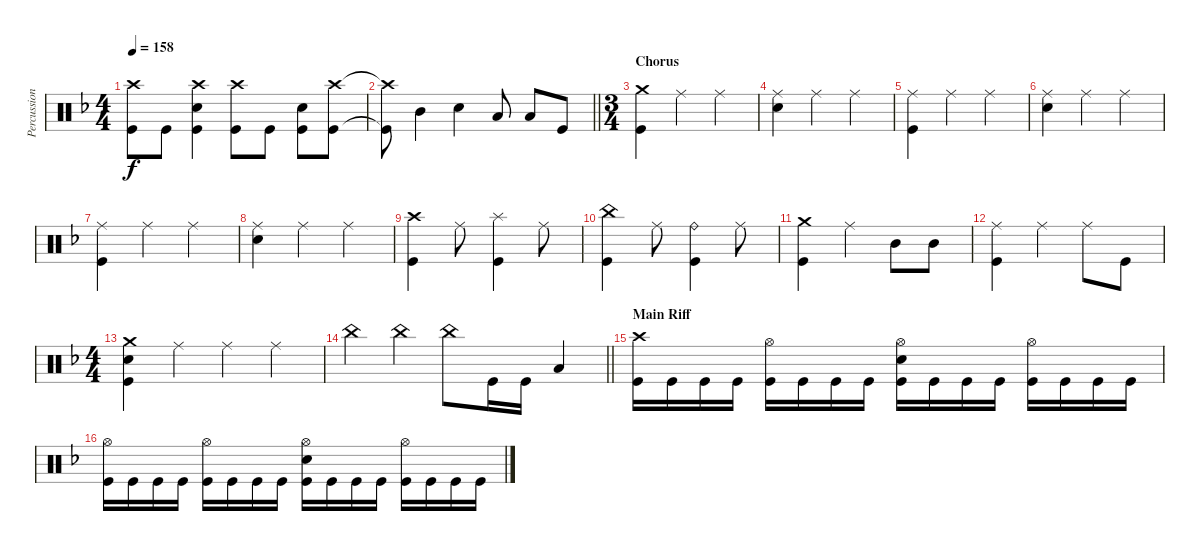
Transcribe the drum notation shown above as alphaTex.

\track ("Percussion" "Percussion") {instrument percussion}
\staff {score}
\articulation defaults
\ts (4 4)
\tempo 158
\clef neutral
\ks f
("Crash high (hit)" "Kick (hit)").8{dy f} "Kick (hit)".8 ("Crash high (hit)" "Electric Snare (hit)" "Kick (hit)").4 ("Crash high (hit)" "Kick (hit)").8 "Kick (hit)".8 ("Electric Snare (hit)" "Kick (hit)").8 ("Crash high (hit)" "Kick (hit)").8 |
\barLineRight lightlight
("Crash high (hit)"{t} "Kick (hit)"{t}).8 "Mid Tom (hit)".4 "Electric Snare (hit)".4 "Low Tom (hit)".8 "Low Tom (hit)".8 "Kick (hit)".8 |
\ts (3 4)
\section ("" "Chorus")
("Crash medium (hit)" "Kick (hit)").4 "Ride (middle)".4 "Ride (middle)".4 |
("Ride (middle)" "Electric Snare (hit)").4 "Ride (middle)".4 "Ride (middle)".4 |
("Ride (middle)" "Kick (hit)").4 "Ride (middle)".4 "Ride (middle)".4 |
("Ride (middle)" "Electric Snare (hit)").4 "Ride (middle)".4 "Ride (middle)".4 |
("Ride (middle)" "Kick (hit)").4 "Ride (middle)".4 "Ride (middle)".4 |
("Ride (middle)" "Electric Snare (hit)").4 "Ride (middle)".4 "Ride (middle)".4 |
("Crash high (hit)" "Kick (hit)").4 "Ride (middle)".8 ("Splash (hit)" "Kick (hit)").4 "Ride (middle)".8 |
("China (hit)" "Kick (hit)").4 "Ride (middle)".8 ("Ride (bell)" "Kick (hit)").4 "Ride (middle)".8 |
("Crash medium (hit)" "Kick (hit)").4 "Ride (middle)".4 "Mid Tom (hit)".8 "Mid Tom (hit)".8 |
("Ride (middle)" "Kick (hit)").4 "Ride (middle)".4 "Ride (middle)".8 "Kick (hit)".8 |
\ts (4 4)
("Crash medium (hit)" "Electric Snare (hit)" "Kick (hit)").4 "Ride (middle)".4 "Ride (middle)".4 "Ride (middle)".4 |
\barLineRight lightlight "China (hit)".4 "China (hit)".4 "China (hit)".8 "Kick (hit)".16 "Kick (hit)".16 "Low Floor Tom (hit)".4
|
\section ("" "Main Riff")
("Crash high (hit)" "Kick (hit)").16 "Kick (hit)".16 "Kick (hit)".16 "Kick (hit)".16 ("Hi-Hat (open)" "Kick (hit)").16 "Kick (hit)".16 "Kick (hit)".16 "Kick (hit)".16 ("Hi-Hat (open)" "Electric Snare (hit)" "Kick (hit)").16 "Kick (hit)".16 "Kick (hit)".16 "Kick (hit)".16 ("Hi-Hat (open)" "Kick (hit)").16 "Kick (hit)".16 "Kick (hit)".16 "Kick (hit)".16 |
("Hi-Hat (open)" "Kick (hit)").16 "Kick (hit)".16 "Kick (hit)".16 "Kick (hit)".16 ("Hi-Hat (open)" "Kick (hit)").16 "Kick (hit)".16 "Kick (hit)".16 "Kick (hit)".16 ("Hi-Hat (open)" "Electric Snare (hit)" "Kick (hit)").16 "Kick (hit)".16 "Kick (hit)".16 "Kick (hit)".16 ("Hi-Hat (open)" "Kick (hit)").16 "Kick (hit)".16 "Kick (hit)".16 "Kick (hit)".16
